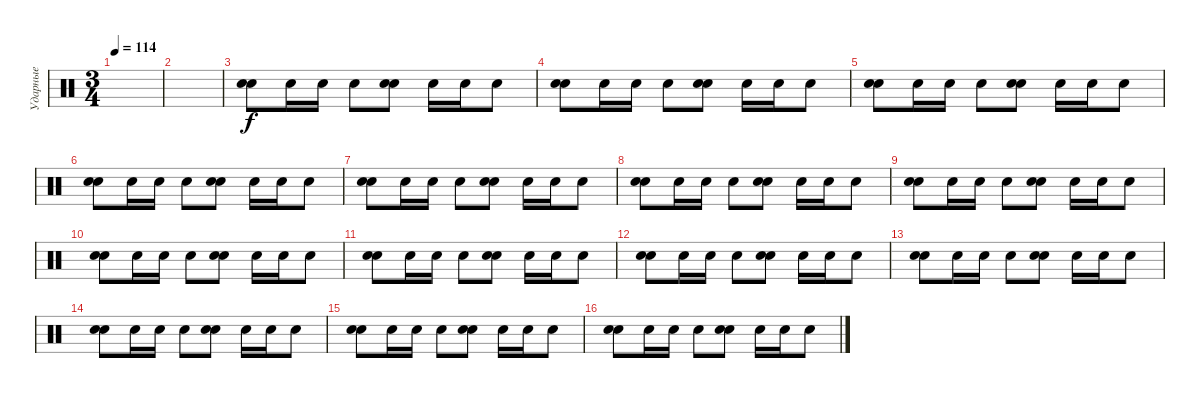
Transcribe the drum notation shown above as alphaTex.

\track ("Ударные" "Ударные") {instrument percussion}
\staff {score}
\articulation defaults
\ts (3 4)
\tempo 114
\clef neutral
\ks c
|
|
("Snare (hit) 2" "Electric Snare (hit)").8{volume 5} "Electric Snare (hit)".16{volume 7} "Electric Snare (hit)".16 "Electric Snare (hit)".8 ("Snare (hit) 2" "Electric Snare (hit)").8 "Electric Snare (hit)".16 "Electric Snare (hit)".16 "Electric Snare (hit)".8 |
("Snare (hit) 2" "Electric Snare (hit)").8 "Electric Snare (hit)".16 "Electric Snare (hit)".16 "Electric Snare (hit)".8 ("Snare (hit) 2" "Electric Snare (hit)").8 "Electric Snare (hit)".16 "Electric Snare (hit)".16 "Electric Snare (hit)".8 |
("Snare (hit) 2" "Electric Snare (hit)").8 "Electric Snare (hit)".16 "Electric Snare (hit)".16 "Electric Snare (hit)".8 ("Snare (hit) 2" "Electric Snare (hit)").8 "Electric Snare (hit)".16 "Electric Snare (hit)".16 "Electric Snare (hit)".8 |
("Snare (hit) 2" "Electric Snare (hit)").8 "Electric Snare (hit)".16 "Electric Snare (hit)".16 "Electric Snare (hit)".8 ("Snare (hit) 2" "Electric Snare (hit)").8 "Electric Snare (hit)".16 "Electric Snare (hit)".16 "Electric Snare (hit)".8 |
("Snare (hit) 2" "Electric Snare (hit)").8 "Electric Snare (hit)".16 "Electric Snare (hit)".16 "Electric Snare (hit)".8 ("Snare (hit) 2" "Electric Snare (hit)").8 "Electric Snare (hit)".16 "Electric Snare (hit)".16 "Electric Snare (hit)".8 |
("Snare (hit) 2" "Electric Snare (hit)").8 "Electric Snare (hit)".16 "Electric Snare (hit)".16 "Electric Snare (hit)".8 ("Snare (hit) 2" "Electric Snare (hit)").8 "Electric Snare (hit)".16 "Electric Snare (hit)".16 "Electric Snare (hit)".8 |
("Snare (hit) 2" "Electric Snare (hit)").8 "Electric Snare (hit)".16 "Electric Snare (hit)".16 "Electric Snare (hit)".8 ("Snare (hit) 2" "Electric Snare (hit)").8 "Electric Snare (hit)".16 "Electric Snare (hit)".16 "Electric Snare (hit)".8 |
("Snare (hit) 2" "Electric Snare (hit)").8 "Electric Snare (hit)".16 "Electric Snare (hit)".16 "Electric Snare (hit)".8 ("Snare (hit) 2" "Electric Snare (hit)").8 "Electric Snare (hit)".16 "Electric Snare (hit)".16 "Electric Snare (hit)".8 |
("Snare (hit) 2" "Electric Snare (hit)").8{volume 5} "Electric Snare (hit)".16{volume 10} "Electric Snare (hit)".16 "Electric Snare (hit)".8 ("Snare (hit) 2" "Electric Snare (hit)").8 "Electric Snare (hit)".16 "Electric Snare (hit)".16 "Electric Snare (hit)".8 |
("Snare (hit) 2" "Electric Snare (hit)").8 "Electric Snare (hit)".16 "Electric Snare (hit)".16 "Electric Snare (hit)".8 ("Snare (hit) 2" "Electric Snare (hit)").8 "Electric Snare (hit)".16 "Electric Snare (hit)".16 "Electric Snare (hit)".8 |
("Snare (hit) 2" "Electric Snare (hit)").8 "Electric Snare (hit)".16 "Electric Snare (hit)".16 "Electric Snare (hit)".8 ("Snare (hit) 2" "Electric Snare (hit)").8 "Electric Snare (hit)".16 "Electric Snare (hit)".16 "Electric Snare (hit)".8 |
("Snare (hit) 2" "Electric Snare (hit)").8 "Electric Snare (hit)".16 "Electric Snare (hit)".16 "Electric Snare (hit)".8 ("Snare (hit) 2" "Electric Snare (hit)").8 "Electric Snare (hit)".16 "Electric Snare (hit)".16 "Electric Snare (hit)".8 |
("Snare (hit) 2" "Electric Snare (hit)").8 "Electric Snare (hit)".16 "Electric Snare (hit)".16 "Electric Snare (hit)".8 ("Snare (hit) 2" "Electric Snare (hit)").8 "Electric Snare (hit)".16 "Electric Snare (hit)".16 "Electric Snare (hit)".8 |
("Snare (hit) 2" "Electric Snare (hit)").8 "Electric Snare (hit)".16 "Electric Snare (hit)".16 "Electric Snare (hit)".8 ("Snare (hit) 2" "Electric Snare (hit)").8 "Electric Snare (hit)".16 "Electric Snare (hit)".16 "Electric Snare (hit)".8
